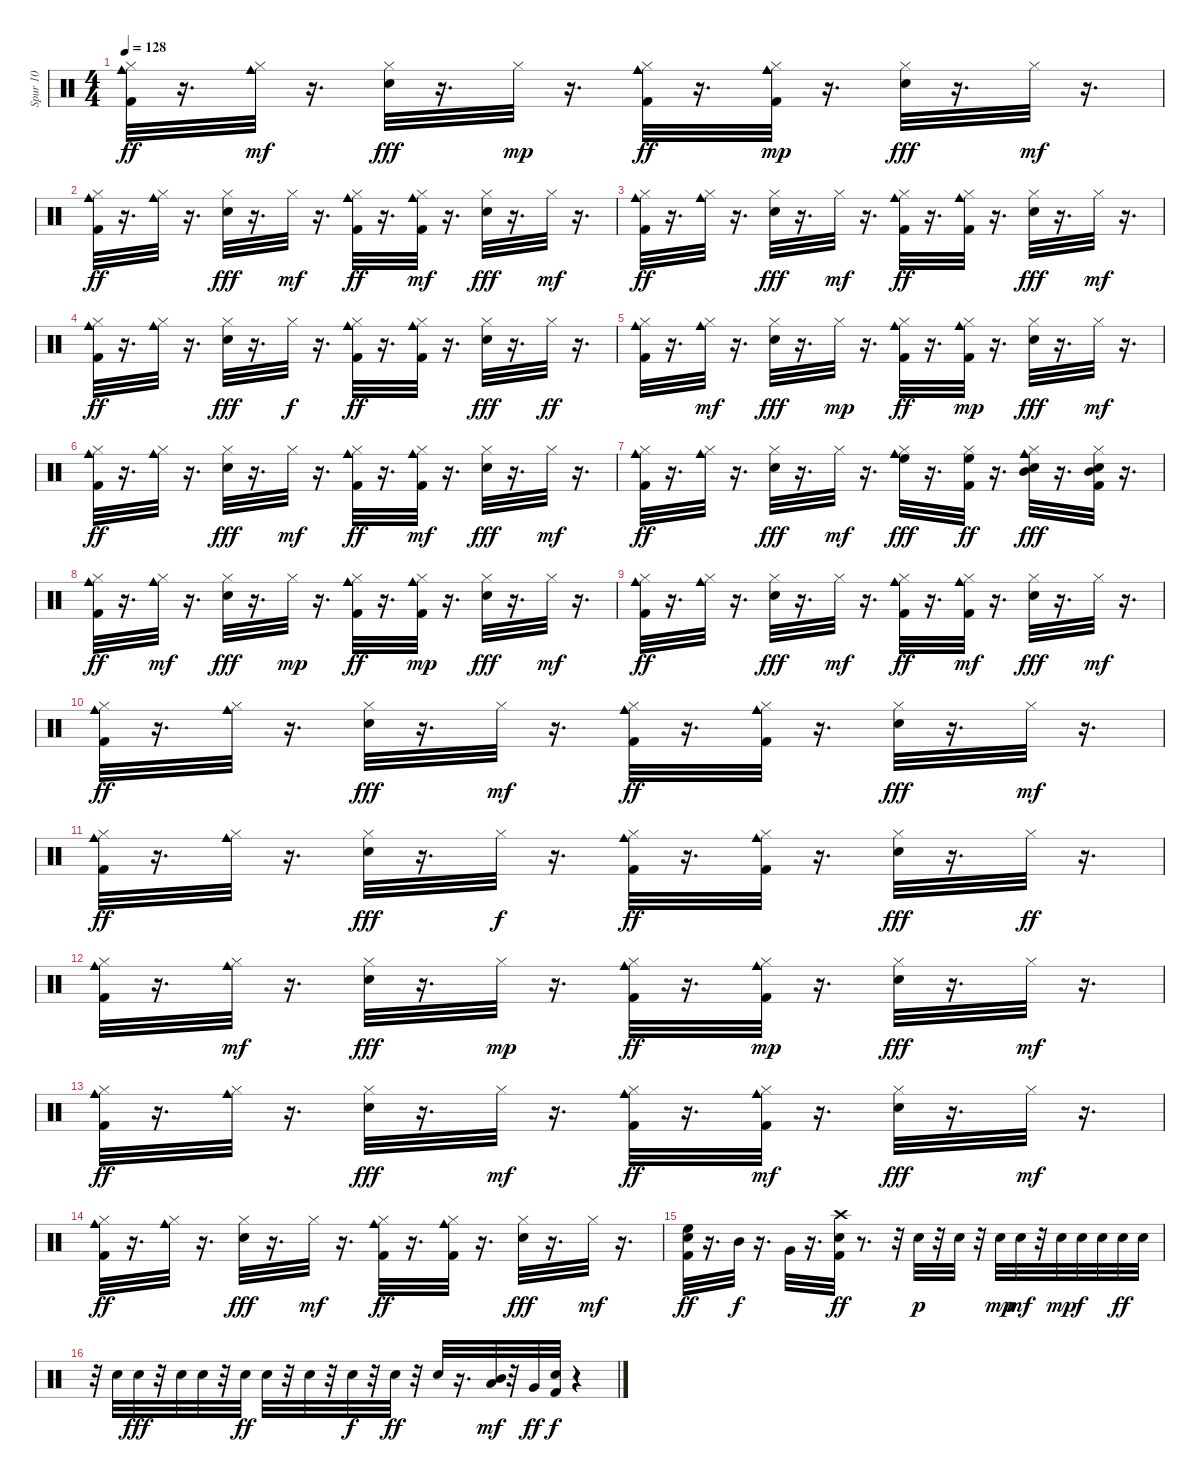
\track ("Spur 10" "Spur 10") {instrument percussion}
\staff {score}
\articulation defaults
\ts (4 4)
\tempo 128
\clef neutral
\ks c
("Kick (hit) 2" "Hi-Hat (closed)" "Cowbell medium (hit)").32{dy ff} r.16{d} ("Hi-Hat (closed)" "Cowbell medium (hit)").32{dy mf} r.16{d} ("Electric Snare (hit)" "Hi-Hat (closed)").32{dy fff} r.16{d} "Hi-Hat (closed)".32{dy mp} r.16{d} ("Kick (hit) 2" "Hi-Hat (closed)" "Cowbell medium (hit)").32{dy ff} r.16{d} ("Kick (hit) 2" "Hi-Hat (closed)" "Cowbell medium (hit)").32{dy mp} r.16{d} ("Electric Snare (hit)" "Hi-Hat (closed)").32{dy fff} r.16{d} "Hi-Hat (closed)".32{dy mf} r.16{d} |
("Kick (hit) 2" "Hi-Hat (closed)" "Cowbell medium (hit)").32{dy ff} r.16{d} ("Hi-Hat (closed)" "Cowbell medium (hit)").32 r.16{d} ("Electric Snare (hit)" "Hi-Hat (closed)").32{dy fff} r.16{d} "Hi-Hat (closed)".32{dy mf} r.16{d} ("Kick (hit) 2" "Hi-Hat (closed)" "Cowbell medium (hit)").32{dy ff} r.16{d} ("Kick (hit) 2" "Hi-Hat (closed)" "Cowbell medium (hit)").32{dy mf} r.16{d} ("Electric Snare (hit)" "Hi-Hat (closed)").32{dy fff} r.16{d} "Hi-Hat (closed)".32{dy mf} r.16{d} |
("Kick (hit) 2" "Hi-Hat (closed)" "Cowbell medium (hit)").32{dy ff} r.16{d} ("Hi-Hat (closed)" "Cowbell medium (hit)").32 r.16{d} ("Electric Snare (hit)" "Hi-Hat (closed)").32{dy fff} r.16{d} "Hi-Hat (closed)".32{dy mf} r.16{d} ("Kick (hit) 2" "Hi-Hat (closed)" "Cowbell medium (hit)").32{dy ff} r.16{d} ("Kick (hit) 2" "Hi-Hat (closed)" "Cowbell medium (hit)").32 r.16{d} ("Electric Snare (hit)" "Hi-Hat (closed)").32{dy fff} r.16{d} "Hi-Hat (closed)".32{dy mf} r.16{d} |
("Kick (hit) 2" "Hi-Hat (closed)" "Cowbell medium (hit)").32{dy ff} r.16{d} ("Hi-Hat (closed)" "Cowbell medium (hit)").32 r.16{d} ("Electric Snare (hit)" "Hi-Hat (closed)").32{dy fff} r.16{d} "Hi-Hat (closed)".32{dy f} r.16{d} ("Kick (hit) 2" "Hi-Hat (closed)" "Cowbell medium (hit)").32{dy ff} r.16{d} ("Kick (hit) 2" "Hi-Hat (closed)" "Cowbell medium (hit)").32 r.16{d} ("Electric Snare (hit)" "Hi-Hat (closed)").32{dy fff} r.16{d} "Hi-Hat (closed)".32{dy ff} r.16{d} |
("Kick (hit) 2" "Hi-Hat (closed)" "Cowbell medium (hit)").32 r.16{d} ("Hi-Hat (closed)" "Cowbell medium (hit)").32{dy mf} r.16{d} ("Electric Snare (hit)" "Hi-Hat (closed)").32{dy fff} r.16{d} "Hi-Hat (closed)".32{dy mp} r.16{d} ("Kick (hit) 2" "Hi-Hat (closed)" "Cowbell medium (hit)").32{dy ff} r.16{d} ("Kick (hit) 2" "Hi-Hat (closed)" "Cowbell medium (hit)").32{dy mp} r.16{d} ("Electric Snare (hit)" "Hi-Hat (closed)").32{dy fff} r.16{d} "Hi-Hat (closed)".32{dy mf} r.16{d} |
("Kick (hit) 2" "Hi-Hat (closed)" "Cowbell medium (hit)").32{dy ff} r.16{d} ("Hi-Hat (closed)" "Cowbell medium (hit)").32 r.16{d} ("Electric Snare (hit)" "Hi-Hat (closed)").32{dy fff} r.16{d} "Hi-Hat (closed)".32{dy mf} r.16{d} ("Kick (hit) 2" "Hi-Hat (closed)" "Cowbell medium (hit)").32{dy ff} r.16{d} ("Kick (hit) 2" "Hi-Hat (closed)" "Cowbell medium (hit)").32{dy mf} r.16{d} ("Electric Snare (hit)" "Hi-Hat (closed)").32{dy fff} r.16{d} "Hi-Hat (closed)".32{dy mf} r.16{d} |
("Kick (hit) 2" "Hi-Hat (closed)" "Cowbell medium (hit)").32{dy ff} r.16{d} ("Hi-Hat (closed)" "Cowbell medium (hit)").32 r.16{d} ("Electric Snare (hit)" "Hi-Hat (closed)").32{dy fff} r.16{d} "Hi-Hat (closed)".32{dy mf} r.16{d} ("Hi-Hat (closed)" "Cowbell medium (hit)" "High Floor Tom (hit)").32{dy fff} r.16{d} ("Kick (hit) 2" "Hi-Hat (closed)" "High Floor Tom (hit)").32{dy ff} r.16{d} ("Electric Snare (hit)" "Hi-Hat (closed)" "Cowbell medium (hit)" "Mid Tom (hit)").32{dy fff} r.16{d} ("Kick (hit) 2" "Hi-Hat (closed)" "Electric Snare (hit)" "Mid Tom (hit)").32 r.16{d} |
("Kick (hit) 2" "Hi-Hat (closed)" "Cowbell medium (hit)").32{dy ff} r.16{d} ("Hi-Hat (closed)" "Cowbell medium (hit)").32{dy mf} r.16{d} ("Electric Snare (hit)" "Hi-Hat (closed)").32{dy fff} r.16{d} "Hi-Hat (closed)".32{dy mp} r.16{d} ("Kick (hit) 2" "Hi-Hat (closed)" "Cowbell medium (hit)").32{dy ff} r.16{d} ("Kick (hit) 2" "Hi-Hat (closed)" "Cowbell medium (hit)").32{dy mp} r.16{d} ("Electric Snare (hit)" "Hi-Hat (closed)").32{dy fff} r.16{d} "Hi-Hat (closed)".32{dy mf} r.16{d} |
("Kick (hit) 2" "Hi-Hat (closed)" "Cowbell medium (hit)").32{dy ff} r.16{d} ("Hi-Hat (closed)" "Cowbell medium (hit)").32 r.16{d} ("Electric Snare (hit)" "Hi-Hat (closed)").32{dy fff} r.16{d} "Hi-Hat (closed)".32{dy mf} r.16{d} ("Kick (hit) 2" "Hi-Hat (closed)" "Cowbell medium (hit)").32{dy ff} r.16{d} ("Kick (hit) 2" "Hi-Hat (closed)" "Cowbell medium (hit)").32{dy mf} r.16{d} ("Electric Snare (hit)" "Hi-Hat (closed)").32{dy fff} r.16{d} "Hi-Hat (closed)".32{dy mf} r.16{d} |
("Kick (hit) 2" "Hi-Hat (closed)" "Cowbell medium (hit)").32{dy ff} r.16{d} ("Hi-Hat (closed)" "Cowbell medium (hit)").32 r.16{d} ("Electric Snare (hit)" "Hi-Hat (closed)").32{dy fff} r.16{d} "Hi-Hat (closed)".32{dy mf} r.16{d} ("Kick (hit) 2" "Hi-Hat (closed)" "Cowbell medium (hit)").32{dy ff} r.16{d} ("Kick (hit) 2" "Hi-Hat (closed)" "Cowbell medium (hit)").32 r.16{d} ("Electric Snare (hit)" "Hi-Hat (closed)").32{dy fff} r.16{d} "Hi-Hat (closed)".32{dy mf} r.16{d} |
("Kick (hit) 2" "Hi-Hat (closed)" "Cowbell medium (hit)").32{dy ff} r.16{d} ("Hi-Hat (closed)" "Cowbell medium (hit)").32 r.16{d} ("Electric Snare (hit)" "Hi-Hat (closed)").32{dy fff} r.16{d} "Hi-Hat (closed)".32{dy f} r.16{d} ("Kick (hit) 2" "Hi-Hat (closed)" "Cowbell medium (hit)").32{dy ff} r.16{d} ("Kick (hit) 2" "Hi-Hat (closed)" "Cowbell medium (hit)").32 r.16{d} ("Electric Snare (hit)" "Hi-Hat (closed)").32{dy fff} r.16{d} "Hi-Hat (closed)".32{dy ff} r.16{d} |
("Kick (hit) 2" "Hi-Hat (closed)" "Cowbell medium (hit)").32 r.16{d} ("Hi-Hat (closed)" "Cowbell medium (hit)").32{dy mf} r.16{d} ("Electric Snare (hit)" "Hi-Hat (closed)").32{dy fff} r.16{d} "Hi-Hat (closed)".32{dy mp} r.16{d} ("Kick (hit) 2" "Hi-Hat (closed)" "Cowbell medium (hit)").32{dy ff} r.16{d} ("Kick (hit) 2" "Hi-Hat (closed)" "Cowbell medium (hit)").32{dy mp} r.16{d} ("Electric Snare (hit)" "Hi-Hat (closed)").32{dy fff} r.16{d} "Hi-Hat (closed)".32{dy mf} r.16{d} |
("Kick (hit) 2" "Hi-Hat (closed)" "Cowbell medium (hit)").32{dy ff} r.16{d} ("Hi-Hat (closed)" "Cowbell medium (hit)").32 r.16{d} ("Electric Snare (hit)" "Hi-Hat (closed)").32{dy fff} r.16{d} "Hi-Hat (closed)".32{dy mf} r.16{d} ("Kick (hit) 2" "Hi-Hat (closed)" "Cowbell medium (hit)").32{dy ff} r.16{d} ("Kick (hit) 2" "Hi-Hat (closed)" "Cowbell medium (hit)").32{dy mf} r.16{d} ("Electric Snare (hit)" "Hi-Hat (closed)").32{dy fff} r.16{d} "Hi-Hat (closed)".32{dy mf} r.16{d} |
("Kick (hit) 2" "Hi-Hat (closed)" "Cowbell medium (hit)").32{dy ff} r.16{d} ("Hi-Hat (closed)" "Cowbell medium (hit)").32 r.16{d} ("Electric Snare (hit)" "Hi-Hat (closed)").32{dy fff} r.16{d} "Hi-Hat (closed)".32{dy mf} r.16{d} ("Kick (hit) 2" "Hi-Hat (closed)" "Cowbell medium (hit)").32{dy ff} r.16{d} ("Kick (hit) 2" "Hi-Hat (closed)" "Cowbell medium (hit)").32 r.16{d} ("Electric Snare (hit)" "Hi-Hat (closed)").32{dy fff} r.16{d} "Hi-Hat (closed)".32{dy mf} r.16{d} |
("Electric Snare (hit)" "Kick (hit) 2" "High Floor Tom (hit)").32{dy ff} r.16{d} "Mid Tom (hit)".32{dy f} r.16{d} "Very Low Tom (hit)".32 r.16{d} ("Electric Snare (hit)" "Crash high (hit)" "Kick (hit) 2").32{dy ff} r.8{d} r.32 "Electric Snare (hit)".32{dy p} r.32 "Electric Snare (hit)".32 r.32 "Electric Snare (hit)".32{dy mp} "Electric Snare (hit)".32{dy mf} r.32 "Electric Snare (hit)".32{dy mp} "Electric Snare (hit)".32{dy f} "Electric Snare (hit)".32 "Electric Snare (hit)".32{dy ff} "Electric Snare (hit)".32 |
r.32 "Electric Snare (hit)".32 "Electric Snare (hit)".32{dy fff} r.32 "Electric Snare (hit)".32 "Electric Snare (hit)".32 r.32 "Electric Snare (hit)".32{dy ff} "Electric Snare (hit)".32 r.32 "Electric Snare (hit)".32 r.32 "Electric Snare (hit)".32{dy f} r.32 "Electric Snare (hit)".32{dy ff} r.32 "Electric Snare (hit)".32 r.16{d} ("Mid Tom (hit)" "Low Tom (hit)").32{dy mf} r.32 "Very Low Tom (hit)".32{dy ff} ("Electric Snare (hit)" "Kick (hit) 2").32{dy f} r.4
